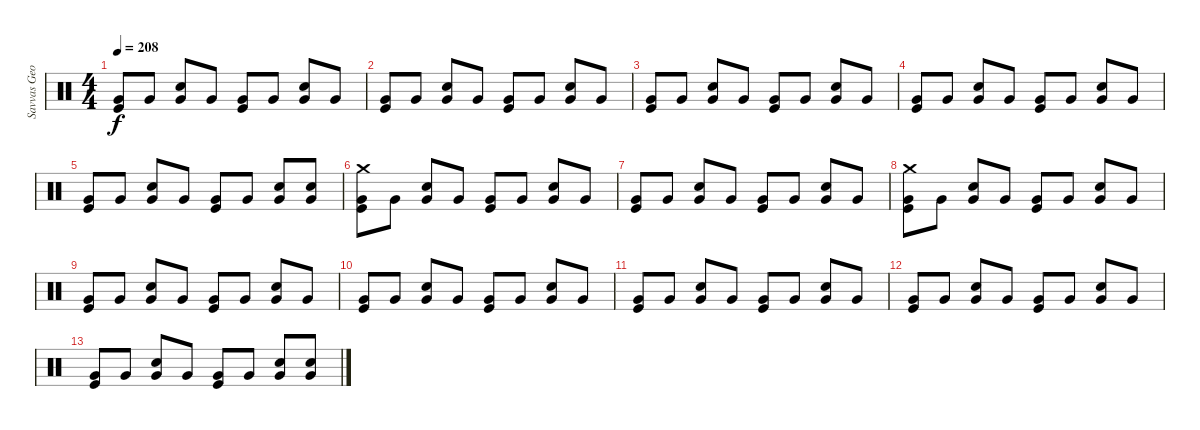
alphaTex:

\track ("Savvas Georgiadis" "Savvas Geo") {instrument percussion}
\staff {score}
\articulation defaults
\ts (4 4)
\tempo 208
\clef neutral
\ks c
("Very Low Tom (hit)" "Kick (hit)").8{dy f} "Very Low Tom (hit)".8 ("Snare (hit) 2" "Very Low Tom (hit)").8 "Very Low Tom (hit)".8 ("Very Low Tom (hit)" "Kick (hit)").8 "Very Low Tom (hit)".8 ("Snare (hit) 2" "Very Low Tom (hit)").8 "Very Low Tom (hit)".8 |
("Very Low Tom (hit)" "Kick (hit)").8 "Very Low Tom (hit)".8 ("Snare (hit) 2" "Very Low Tom (hit)").8 "Very Low Tom (hit)".8 ("Very Low Tom (hit)" "Kick (hit)").8 "Very Low Tom (hit)".8 ("Snare (hit) 2" "Very Low Tom (hit)").8 "Very Low Tom (hit)".8 |
("Very Low Tom (hit)" "Kick (hit)").8 "Very Low Tom (hit)".8 ("Snare (hit) 2" "Very Low Tom (hit)").8 "Very Low Tom (hit)".8 ("Very Low Tom (hit)" "Kick (hit)").8 "Very Low Tom (hit)".8 ("Snare (hit) 2" "Very Low Tom (hit)").8 "Very Low Tom (hit)".8 |
("Very Low Tom (hit)" "Kick (hit)").8 "Very Low Tom (hit)".8 ("Snare (hit) 2" "Very Low Tom (hit)").8 "Very Low Tom (hit)".8 ("Very Low Tom (hit)" "Kick (hit)").8 "Very Low Tom (hit)".8 ("Snare (hit) 2" "Very Low Tom (hit)").8 "Very Low Tom (hit)".8 |
("Very Low Tom (hit)" "Kick (hit)").8 "Very Low Tom (hit)".8 ("Snare (hit) 2" "Very Low Tom (hit)").8 "Very Low Tom (hit)".8 ("Very Low Tom (hit)" "Kick (hit)").8 "Very Low Tom (hit)".8 ("Snare (hit) 2" "Very Low Tom (hit)").8 ("Snare (hit) 2" "Very Low Tom (hit)").8 |
("Crash medium (hit)" "Very Low Tom (hit)" "Kick (hit)").8 "Very Low Tom (hit)".8 ("Snare (hit) 2" "Very Low Tom (hit)").8 "Very Low Tom (hit)".8 ("Very Low Tom (hit)" "Kick (hit)").8 "Very Low Tom (hit)".8 ("Snare (hit) 2" "Very Low Tom (hit)").8 "Very Low Tom (hit)".8 |
("Very Low Tom (hit)" "Kick (hit)").8 "Very Low Tom (hit)".8 ("Snare (hit) 2" "Very Low Tom (hit)").8 "Very Low Tom (hit)".8 ("Very Low Tom (hit)" "Kick (hit)").8 "Very Low Tom (hit)".8 ("Snare (hit) 2" "Very Low Tom (hit)").8 "Very Low Tom (hit)".8 |
("Crash medium (hit)" "Very Low Tom (hit)" "Kick (hit)").8 "Very Low Tom (hit)".8 ("Snare (hit) 2" "Very Low Tom (hit)").8 "Very Low Tom (hit)".8 ("Very Low Tom (hit)" "Kick (hit)").8 "Very Low Tom (hit)".8 ("Snare (hit) 2" "Very Low Tom (hit)").8 "Very Low Tom (hit)".8 |
("Very Low Tom (hit)" "Kick (hit)").8 "Very Low Tom (hit)".8 ("Snare (hit) 2" "Very Low Tom (hit)").8 "Very Low Tom (hit)".8 ("Very Low Tom (hit)" "Kick (hit)").8 "Very Low Tom (hit)".8 ("Snare (hit) 2" "Very Low Tom (hit)").8 "Very Low Tom (hit)".8 |
("Very Low Tom (hit)" "Kick (hit)").8 "Very Low Tom (hit)".8 ("Snare (hit) 2" "Very Low Tom (hit)").8 "Very Low Tom (hit)".8 ("Very Low Tom (hit)" "Kick (hit)").8 "Very Low Tom (hit)".8 ("Snare (hit) 2" "Very Low Tom (hit)").8 "Very Low Tom (hit)".8 |
("Very Low Tom (hit)" "Kick (hit)").8 "Very Low Tom (hit)".8 ("Snare (hit) 2" "Very Low Tom (hit)").8 "Very Low Tom (hit)".8 ("Very Low Tom (hit)" "Kick (hit)").8 "Very Low Tom (hit)".8 ("Snare (hit) 2" "Very Low Tom (hit)").8 "Very Low Tom (hit)".8 |
("Very Low Tom (hit)" "Kick (hit)").8 "Very Low Tom (hit)".8 ("Snare (hit) 2" "Very Low Tom (hit)").8 "Very Low Tom (hit)".8 ("Very Low Tom (hit)" "Kick (hit)").8 "Very Low Tom (hit)".8 ("Snare (hit) 2" "Very Low Tom (hit)").8 "Very Low Tom (hit)".8 |
("Very Low Tom (hit)" "Kick (hit)").8 "Very Low Tom (hit)".8 ("Snare (hit) 2" "Very Low Tom (hit)").8 "Very Low Tom (hit)".8 ("Very Low Tom (hit)" "Kick (hit)").8 "Very Low Tom (hit)".8 ("Snare (hit) 2" "Very Low Tom (hit)").8 ("Snare (hit) 2" "Very Low Tom (hit)").8
